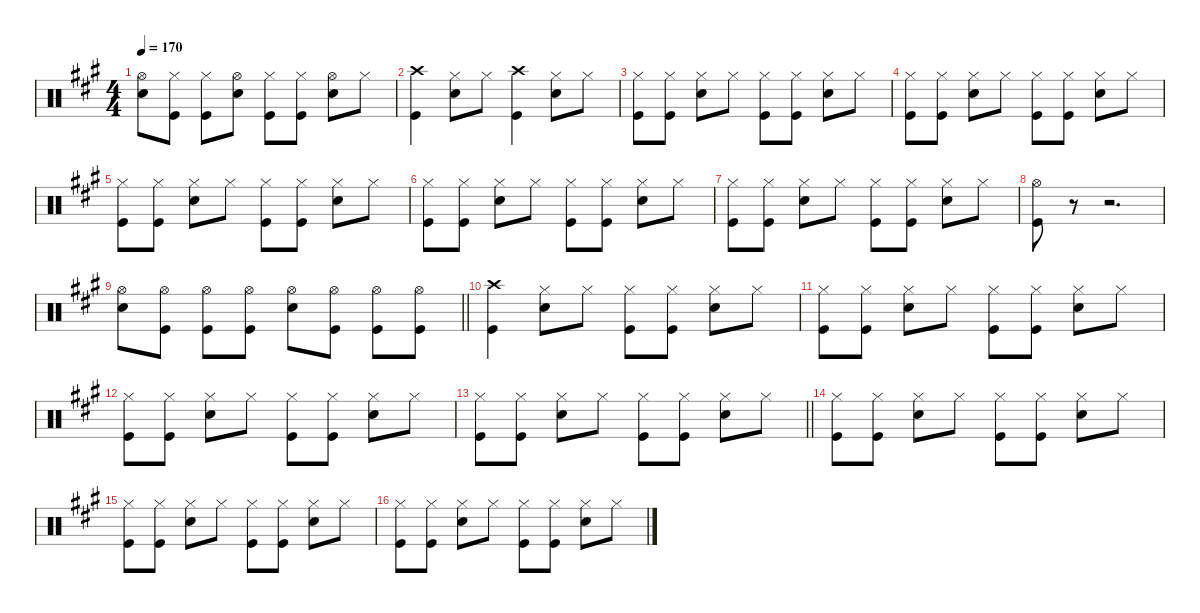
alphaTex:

\defaultSystemsLayout 4
\hideDynamics
\bracketExtendMode nobrackets
\singleTrackTrackNamePolicy hidden
\multiTrackTrackNamePolicy hidden
\firstSystemTrackNameMode fullname
\firstSystemTrackNameOrientation horizontal
\otherSystemsTrackNameOrientation horizontal
\track ("Percussion" "drm.") {defaultSystemsLayout 4 instrument percussion}
\staff {score}
\articulation defaults
\ts (4 4)
\tempo 170
\clef neutral
\ks a
("Hi-Hat (open)"{acc forcenatural} "Snare (hit) 2"{acc forcenatural}).8{dy f beam Down} ("Hi-Hat (closed)"{acc forcenatural} "Kick (hit)"{acc forcenatural}).8{beam Down} ("Hi-Hat (closed)"{acc forcenatural} "Kick (hit)"{acc forcenatural}).8{beam Down} ("Hi-Hat (open)"{acc forcenatural} "Snare (hit) 2"{acc forcenatural}).8{beam Down} ("Hi-Hat (closed)"{acc forcenatural} "Kick (hit)"{acc forcenatural}).8{beam Down} ("Hi-Hat (closed)"{acc forcenatural} "Kick (hit)"{acc forcenatural}).8{beam Down} ("Hi-Hat (open)"{acc forcenatural} "Snare (hit) 2"{acc forcenatural}).8{beam Down} "Hi-Hat (closed)"{acc forcenatural}.8{beam Down} |
("Crash high (hit)"{acc forcenatural} "Kick (hit)"{acc forcenatural}).4{beam Down} ("Hi-Hat (closed)"{acc forcenatural} "Snare (hit) 2"{acc forcenatural}).8{beam Down} "Hi-Hat (closed)"{acc forcenatural}.8{beam Down} ("Crash high (hit)"{acc forcenatural} "Kick (hit)"{acc forcenatural}).4{beam Down} ("Hi-Hat (closed)"{acc forcenatural} "Snare (hit) 2"{acc forcenatural}).8{beam Down} "Hi-Hat (closed)"{acc forcenatural}.8{beam Down} |
("Hi-Hat (closed)"{acc forcenatural} "Kick (hit)"{acc forcenatural}).8{beam Down} ("Hi-Hat (closed)"{acc forcenatural} "Kick (hit)"{acc forcenatural}).8{beam Down} ("Hi-Hat (closed)"{acc forcenatural} "Snare (hit) 2"{acc forcenatural}).8{beam Down} "Hi-Hat (closed)"{acc forcenatural}.8{beam Down} ("Hi-Hat (closed)"{acc forcenatural} "Kick (hit)"{acc forcenatural}).8{beam Down} ("Hi-Hat (closed)"{acc forcenatural} "Kick (hit)"{acc forcenatural}).8{beam Down} ("Hi-Hat (closed)"{acc forcenatural} "Snare (hit) 2"{acc forcenatural}).8{beam Down} "Hi-Hat (closed)"{acc forcenatural}.8{beam Down} |
("Hi-Hat (closed)"{acc forcenatural} "Kick (hit)"{acc forcenatural}).8{beam Down} ("Hi-Hat (closed)"{acc forcenatural} "Kick (hit)"{acc forcenatural}).8{beam Down} ("Hi-Hat (closed)"{acc forcenatural} "Snare (hit) 2"{acc forcenatural}).8{beam Down} "Hi-Hat (closed)"{acc forcenatural}.8{beam Down} ("Hi-Hat (closed)"{acc forcenatural} "Kick (hit)"{acc forcenatural}).8{beam Down} ("Hi-Hat (closed)"{acc forcenatural} "Kick (hit)"{acc forcenatural}).8{beam Down} ("Hi-Hat (closed)"{acc forcenatural} "Snare (hit) 2"{acc forcenatural}).8{beam Down} "Hi-Hat (closed)"{acc forcenatural}.8{beam Down} |
("Hi-Hat (closed)"{acc forcenatural} "Kick (hit)"{acc forcenatural}).8{beam Down} ("Hi-Hat (closed)"{acc forcenatural} "Kick (hit)"{acc forcenatural}).8{beam Down} ("Hi-Hat (closed)"{acc forcenatural} "Snare (hit) 2"{acc forcenatural}).8{beam Down} "Hi-Hat (closed)"{acc forcenatural}.8{beam Down} ("Hi-Hat (closed)"{acc forcenatural} "Kick (hit)"{acc forcenatural}).8{beam Down} ("Hi-Hat (closed)"{acc forcenatural} "Kick (hit)"{acc forcenatural}).8{beam Down} ("Hi-Hat (closed)"{acc forcenatural} "Snare (hit) 2"{acc forcenatural}).8{beam Down} "Hi-Hat (closed)"{acc forcenatural}.8{beam Down} |
("Hi-Hat (closed)"{acc forcenatural} "Kick (hit)"{acc forcenatural}).8{beam Down} ("Hi-Hat (closed)"{acc forcenatural} "Kick (hit)"{acc forcenatural}).8{beam Down} ("Hi-Hat (closed)"{acc forcenatural} "Snare (hit) 2"{acc forcenatural}).8{beam Down} "Hi-Hat (closed)"{acc forcenatural}.8{beam Down} ("Hi-Hat (closed)"{acc forcenatural} "Kick (hit)"{acc forcenatural}).8{beam Down} ("Hi-Hat (closed)"{acc forcenatural} "Kick (hit)"{acc forcenatural}).8{beam Down} ("Hi-Hat (closed)"{acc forcenatural} "Snare (hit) 2"{acc forcenatural}).8{beam Down} "Hi-Hat (closed)"{acc forcenatural}.8{beam Down} |
("Hi-Hat (closed)"{acc forcenatural} "Kick (hit)"{acc forcenatural}).8{beam Down} ("Hi-Hat (closed)"{acc forcenatural} "Kick (hit)"{acc forcenatural}).8{beam Down} ("Hi-Hat (closed)"{acc forcenatural} "Snare (hit) 2"{acc forcenatural}).8{beam Down} "Hi-Hat (closed)"{acc forcenatural}.8{beam Down} ("Hi-Hat (closed)"{acc forcenatural} "Kick (hit)"{acc forcenatural}).8{beam Down} ("Hi-Hat (closed)"{acc forcenatural} "Kick (hit)"{acc forcenatural}).8{beam Down} ("Hi-Hat (closed)"{acc forcenatural} "Snare (hit) 2"{acc forcenatural}).8{beam Down} "Hi-Hat (closed)"{acc forcenatural}.8{beam Down} |
("Hi-Hat (open)"{acc forcenatural} "Kick (hit)"{acc forcenatural}).8{beam Down} r.8{beam Down} r.2{d beam Down} |
\barLineRight lightlight
("Hi-Hat (open)"{acc forcenatural} "Snare (hit) 2"{acc forcenatural}).8{beam Down} ("Hi-Hat (open)"{acc forcenatural} "Kick (hit)"{acc forcenatural}).8{beam Down} ("Hi-Hat (open)"{acc forcenatural} "Kick (hit)"{acc forcenatural}).8{beam Down} ("Hi-Hat (open)"{acc forcenatural} "Kick (hit)"{acc forcenatural}).8{beam Down} ("Hi-Hat (open)"{acc forcenatural} "Snare (hit) 2"{acc forcenatural}).8{beam Down} ("Hi-Hat (open)"{acc forcenatural} "Kick (hit)"{acc forcenatural}).8{beam Down} ("Hi-Hat (open)"{acc forcenatural} "Kick (hit)"{acc forcenatural}).8{beam Down} ("Hi-Hat (open)"{acc forcenatural} "Kick (hit)"{acc forcenatural}).8{beam Down} |
("Crash high (hit)"{acc forcenatural} "Kick (hit)"{acc forcenatural}).4{beam Down} ("Hi-Hat (closed)"{acc forcenatural} "Snare (hit) 2"{acc forcenatural}).8{beam Down} "Hi-Hat (closed)"{acc forcenatural}.8{beam Down} ("Hi-Hat (closed)"{acc forcenatural} "Kick (hit)"{acc forcenatural}).8{beam Down} ("Hi-Hat (closed)"{acc forcenatural} "Kick (hit)"{acc forcenatural}).8{beam Down} ("Hi-Hat (closed)"{acc forcenatural} "Snare (hit) 2"{acc forcenatural}).8{beam Down} "Hi-Hat (closed)"{acc forcenatural}.8{beam Down} |
("Hi-Hat (closed)"{acc forcenatural} "Kick (hit)"{acc forcenatural}).8{beam Down} ("Hi-Hat (closed)"{acc forcenatural} "Kick (hit)"{acc forcenatural}).8{beam Down} ("Hi-Hat (closed)"{acc forcenatural} "Snare (hit) 2"{acc forcenatural}).8{beam Down} "Hi-Hat (closed)"{acc forcenatural}.8{beam Down} ("Hi-Hat (closed)"{acc forcenatural} "Kick (hit)"{acc forcenatural}).8{beam Down} ("Hi-Hat (closed)"{acc forcenatural} "Kick (hit)"{acc forcenatural}).8{beam Down} ("Hi-Hat (closed)"{acc forcenatural} "Snare (hit) 2"{acc forcenatural}).8{beam Down} "Hi-Hat (closed)"{acc forcenatural}.8{beam Down} |
("Hi-Hat (closed)"{acc forcenatural} "Kick (hit)"{acc forcenatural}).8{beam Down} ("Hi-Hat (closed)"{acc forcenatural} "Kick (hit)"{acc forcenatural}).8{beam Down} ("Hi-Hat (closed)"{acc forcenatural} "Snare (hit) 2"{acc forcenatural}).8{beam Down} "Hi-Hat (closed)"{acc forcenatural}.8{beam Down} ("Hi-Hat (closed)"{acc forcenatural} "Kick (hit)"{acc forcenatural}).8{beam Down} ("Hi-Hat (closed)"{acc forcenatural} "Kick (hit)"{acc forcenatural}).8{beam Down} ("Hi-Hat (closed)"{acc forcenatural} "Snare (hit) 2"{acc forcenatural}).8{beam Down} "Hi-Hat (closed)"{acc forcenatural}.8{beam Down} |
\barLineRight lightlight
("Hi-Hat (closed)"{acc forcenatural} "Kick (hit)"{acc forcenatural}).8{beam Down} ("Hi-Hat (closed)"{acc forcenatural} "Kick (hit)"{acc forcenatural}).8{beam Down} ("Hi-Hat (closed)"{acc forcenatural} "Snare (hit) 2"{acc forcenatural}).8{beam Down} "Hi-Hat (closed)"{acc forcenatural}.8{beam Down} ("Hi-Hat (closed)"{acc forcenatural} "Kick (hit)"{acc forcenatural}).8{beam Down} ("Hi-Hat (closed)"{acc forcenatural} "Kick (hit)"{acc forcenatural}).8{beam Down} ("Hi-Hat (closed)"{acc forcenatural} "Snare (hit) 2"{acc forcenatural}).8{beam Down} "Hi-Hat (closed)"{acc forcenatural}.8{beam Down} |
("Hi-Hat (closed)"{acc forcenatural} "Kick (hit)"{acc forcenatural}).8{beam Down} ("Hi-Hat (closed)"{acc forcenatural} "Kick (hit)"{acc forcenatural}).8{beam Down} ("Hi-Hat (closed)"{acc forcenatural} "Snare (hit) 2"{acc forcenatural}).8{beam Down} "Hi-Hat (closed)"{acc forcenatural}.8{beam Down} ("Hi-Hat (closed)"{acc forcenatural} "Kick (hit)"{acc forcenatural}).8{beam Down} ("Hi-Hat (closed)"{acc forcenatural} "Kick (hit)"{acc forcenatural}).8{beam Down} ("Hi-Hat (closed)"{acc forcenatural} "Snare (hit) 2"{acc forcenatural}).8{beam Down} "Hi-Hat (closed)"{acc forcenatural}.8{beam Down} |
("Hi-Hat (closed)"{acc forcenatural} "Kick (hit)"{acc forcenatural}).8{beam Down} ("Hi-Hat (closed)"{acc forcenatural} "Kick (hit)"{acc forcenatural}).8{beam Down} ("Hi-Hat (closed)"{acc forcenatural} "Snare (hit) 2"{acc forcenatural}).8{beam Down} "Hi-Hat (closed)"{acc forcenatural}.8{beam Down} ("Hi-Hat (closed)"{acc forcenatural} "Kick (hit)"{acc forcenatural}).8{beam Down} ("Hi-Hat (closed)"{acc forcenatural} "Kick (hit)"{acc forcenatural}).8{beam Down} ("Hi-Hat (closed)"{acc forcenatural} "Snare (hit) 2"{acc forcenatural}).8{beam Down} "Hi-Hat (closed)"{acc forcenatural}.8{beam Down} |
("Hi-Hat (closed)"{acc forcenatural} "Kick (hit)"{acc forcenatural}).8{beam Down} ("Hi-Hat (closed)"{acc forcenatural} "Kick (hit)"{acc forcenatural}).8{beam Down} ("Hi-Hat (closed)"{acc forcenatural} "Snare (hit) 2"{acc forcenatural}).8{beam Down} "Hi-Hat (closed)"{acc forcenatural}.8{beam Down} ("Hi-Hat (closed)"{acc forcenatural} "Kick (hit)"{acc forcenatural}).8{beam Down} ("Hi-Hat (closed)"{acc forcenatural} "Kick (hit)"{acc forcenatural}).8{beam Down} ("Hi-Hat (closed)"{acc forcenatural} "Snare (hit) 2"{acc forcenatural}).8{beam Down} "Hi-Hat (closed)"{acc forcenatural}.8{beam Down}
